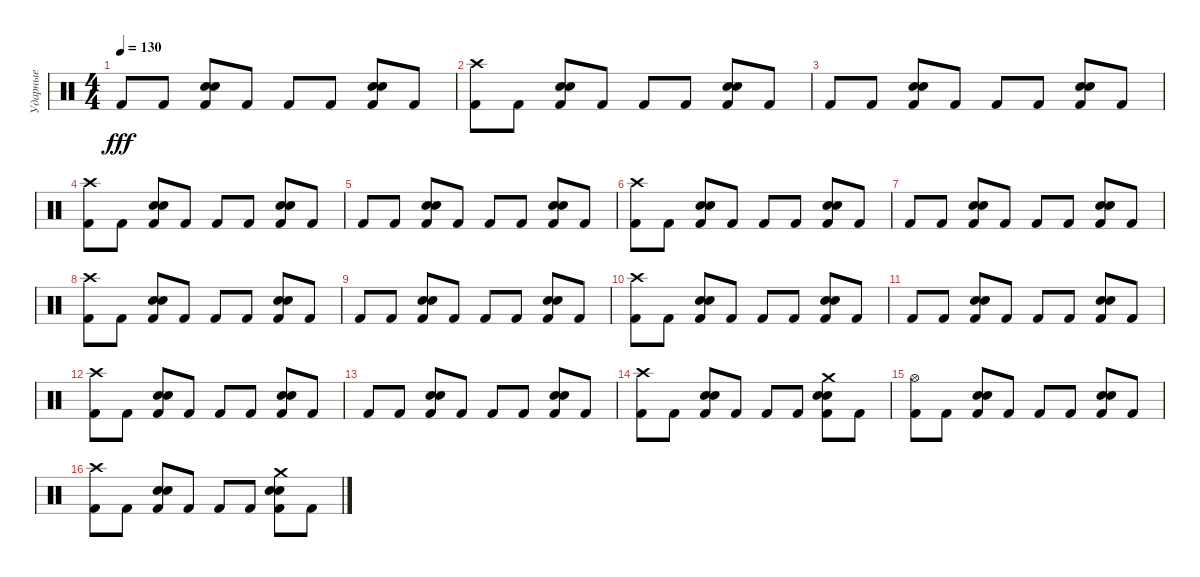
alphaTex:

\track ("Ударные" "Ударные") {instrument percussion}
\staff {score}
\articulation defaults
\ts (4 4)
\tempo 130
\clef neutral
\ks c "Kick (hit) 2".8{dy fff} "Kick (hit) 2".8
("Snare (hit) 2" "Snare (hit) 2" "Kick (hit) 2").8 "Kick (hit) 2".8 "Kick (hit) 2".8 "Kick (hit) 2".8 ("Snare (hit) 2" "Snare (hit) 2" "Kick (hit) 2").8 "Kick (hit) 2".8 |
("Crash high (hit)" "Kick (hit) 2").8 "Kick (hit) 2".8 ("Snare (hit) 2" "Snare (hit) 2" "Kick (hit) 2").8 "Kick (hit) 2".8 "Kick (hit) 2".8 "Kick (hit) 2".8 ("Snare (hit) 2" "Snare (hit) 2" "Kick (hit) 2").8 "Kick (hit) 2".8 |
"Kick (hit) 2".8 "Kick (hit) 2".8 ("Snare (hit) 2" "Snare (hit) 2" "Kick (hit) 2").8 "Kick (hit) 2".8 "Kick (hit) 2".8 "Kick (hit) 2".8 ("Snare (hit) 2" "Snare (hit) 2" "Kick (hit) 2").8 "Kick (hit) 2".8 |
("Crash high (hit)" "Kick (hit) 2").8 "Kick (hit) 2".8 ("Snare (hit) 2" "Snare (hit) 2" "Kick (hit) 2").8 "Kick (hit) 2".8 "Kick (hit) 2".8 "Kick (hit) 2".8 ("Snare (hit) 2" "Snare (hit) 2" "Kick (hit) 2").8 "Kick (hit) 2".8 |
"Kick (hit) 2".8 "Kick (hit) 2".8 ("Snare (hit) 2" "Snare (hit) 2" "Kick (hit) 2").8 "Kick (hit) 2".8 "Kick (hit) 2".8 "Kick (hit) 2".8 ("Snare (hit) 2" "Snare (hit) 2" "Kick (hit) 2").8 "Kick (hit) 2".8 |
("Crash high (hit)" "Kick (hit) 2").8 "Kick (hit) 2".8 ("Snare (hit) 2" "Snare (hit) 2" "Kick (hit) 2").8 "Kick (hit) 2".8 "Kick (hit) 2".8 "Kick (hit) 2".8 ("Snare (hit) 2" "Snare (hit) 2" "Kick (hit) 2").8 "Kick (hit) 2".8 |
"Kick (hit) 2".8 "Kick (hit) 2".8 ("Snare (hit) 2" "Snare (hit) 2" "Kick (hit) 2").8 "Kick (hit) 2".8 "Kick (hit) 2".8 "Kick (hit) 2".8 ("Snare (hit) 2" "Snare (hit) 2" "Kick (hit) 2").8 "Kick (hit) 2".8 |
("Crash high (hit)" "Kick (hit) 2").8 "Kick (hit) 2".8 ("Snare (hit) 2" "Snare (hit) 2" "Kick (hit) 2").8 "Kick (hit) 2".8 "Kick (hit) 2".8 "Kick (hit) 2".8 ("Snare (hit) 2" "Snare (hit) 2" "Kick (hit) 2").8 "Kick (hit) 2".8 |
"Kick (hit) 2".8 "Kick (hit) 2".8 ("Snare (hit) 2" "Snare (hit) 2" "Kick (hit) 2").8 "Kick (hit) 2".8 "Kick (hit) 2".8 "Kick (hit) 2".8 ("Snare (hit) 2" "Snare (hit) 2" "Kick (hit) 2").8 "Kick (hit) 2".8 |
("Crash high (hit)" "Kick (hit) 2").8 "Kick (hit) 2".8 ("Snare (hit) 2" "Snare (hit) 2" "Kick (hit) 2").8 "Kick (hit) 2".8 "Kick (hit) 2".8 "Kick (hit) 2".8 ("Snare (hit) 2" "Snare (hit) 2" "Kick (hit) 2").8 "Kick (hit) 2".8 |
"Kick (hit) 2".8 "Kick (hit) 2".8 ("Snare (hit) 2" "Snare (hit) 2" "Kick (hit) 2").8 "Kick (hit) 2".8 "Kick (hit) 2".8 "Kick (hit) 2".8 ("Snare (hit) 2" "Snare (hit) 2" "Kick (hit) 2").8 "Kick (hit) 2".8 |
("Crash high (hit)" "Kick (hit) 2").8 "Kick (hit) 2".8 ("Snare (hit) 2" "Snare (hit) 2" "Kick (hit) 2").8 "Kick (hit) 2".8 "Kick (hit) 2".8 "Kick (hit) 2".8 ("Snare (hit) 2" "Snare (hit) 2" "Kick (hit) 2").8 "Kick (hit) 2".8 |
"Kick (hit) 2".8 "Kick (hit) 2".8 ("Snare (hit) 2" "Snare (hit) 2" "Kick (hit) 2").8 "Kick (hit) 2".8 "Kick (hit) 2".8 "Kick (hit) 2".8 ("Snare (hit) 2" "Snare (hit) 2" "Kick (hit) 2").8 "Kick (hit) 2".8 |
("Crash high (hit)" "Kick (hit) 2").8 "Kick (hit) 2".8 ("Snare (hit) 2" "Snare (hit) 2" "Kick (hit) 2").8 "Kick (hit) 2".8 "Kick (hit) 2".8 "Kick (hit) 2".8 ("Crash medium (hit)" "Snare (hit) 2" "Snare (hit) 2" "Kick (hit) 2").8 "Kick (hit) 2".8 |
("Hi-Hat (open)" "Kick (hit) 2").8 "Kick (hit) 2".8 ("Snare (hit) 2" "Snare (hit) 2" "Kick (hit) 2").8 "Kick (hit) 2".8 "Kick (hit) 2".8 "Kick (hit) 2".8 ("Snare (hit) 2" "Snare (hit) 2" "Kick (hit) 2").8 "Kick (hit) 2".8 |
("Crash high (hit)" "Kick (hit) 2").8 "Kick (hit) 2".8 ("Snare (hit) 2" "Snare (hit) 2" "Kick (hit) 2").8 "Kick (hit) 2".8 "Kick (hit) 2".8 "Kick (hit) 2".8 ("Crash medium (hit)" "Snare (hit) 2" "Snare (hit) 2" "Kick (hit) 2").8 "Kick (hit) 2".8
